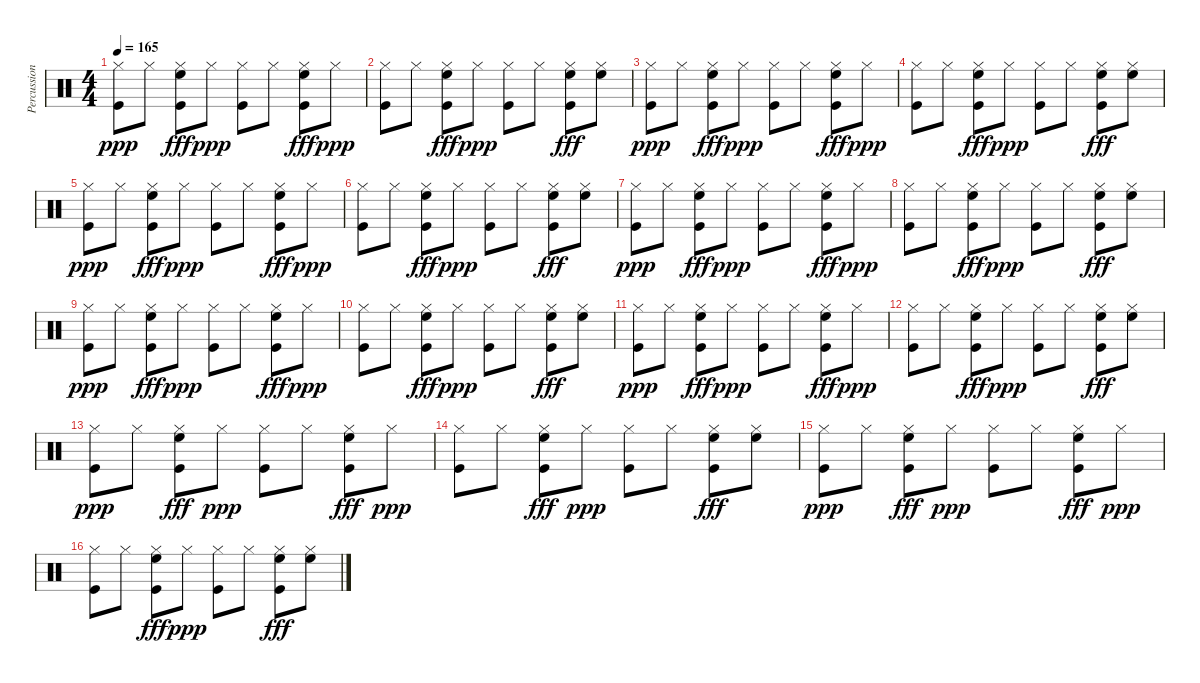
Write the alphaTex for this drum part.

\track ("Percussions" "Percussion") {instrument percussion}
\staff {score}
\articulation defaults
\ts (4 4)
\tempo 165
\clef neutral
\ks c
("Kick (hit)" "Hi-Hat (closed)").8{dy ppp} "Hi-Hat (closed)".8 ("Kick (hit)" "Hi-Hat (closed)" "High Floor Tom (hit)").8{dy fff} "Hi-Hat (closed)".8{dy ppp} ("Kick (hit)" "Hi-Hat (closed)").8 "Hi-Hat (closed)".8 ("Kick (hit)" "Hi-Hat (closed)" "High Floor Tom (hit)").8{dy fff} "Hi-Hat (closed)".8{dy ppp} |
("Kick (hit)" "Hi-Hat (closed)").8 "Hi-Hat (closed)".8 ("Kick (hit)" "Hi-Hat (closed)" "High Floor Tom (hit)").8{dy fff} "Hi-Hat (closed)".8{dy ppp} ("Kick (hit)" "Hi-Hat (closed)").8 "Hi-Hat (closed)".8 ("Kick (hit)" "Hi-Hat (closed)" "High Floor Tom (hit)").8{dy fff} ("Hi-Hat (closed)" "High Floor Tom (hit)").8 |
("Kick (hit)" "Hi-Hat (closed)").8{dy ppp} "Hi-Hat (closed)".8 ("Kick (hit)" "Hi-Hat (closed)" "High Floor Tom (hit)").8{dy fff} "Hi-Hat (closed)".8{dy ppp} ("Kick (hit)" "Hi-Hat (closed)").8 "Hi-Hat (closed)".8 ("Kick (hit)" "Hi-Hat (closed)" "High Floor Tom (hit)").8{dy fff} "Hi-Hat (closed)".8{dy ppp} |
("Kick (hit)" "Hi-Hat (closed)").8 "Hi-Hat (closed)".8 ("Kick (hit)" "Hi-Hat (closed)" "High Floor Tom (hit)").8{dy fff} "Hi-Hat (closed)".8{dy ppp} ("Kick (hit)" "Hi-Hat (closed)").8 "Hi-Hat (closed)".8 ("Kick (hit)" "Hi-Hat (closed)" "High Floor Tom (hit)").8{dy fff} ("Hi-Hat (closed)" "High Floor Tom (hit)").8 |
("Kick (hit)" "Hi-Hat (closed)").8{dy ppp} "Hi-Hat (closed)".8 ("Kick (hit)" "Hi-Hat (closed)" "High Floor Tom (hit)").8{dy fff} "Hi-Hat (closed)".8{dy ppp} ("Kick (hit)" "Hi-Hat (closed)").8 "Hi-Hat (closed)".8 ("Kick (hit)" "Hi-Hat (closed)" "High Floor Tom (hit)").8{dy fff} "Hi-Hat (closed)".8{dy ppp} |
("Kick (hit)" "Hi-Hat (closed)").8 "Hi-Hat (closed)".8 ("Kick (hit)" "Hi-Hat (closed)" "High Floor Tom (hit)").8{dy fff} "Hi-Hat (closed)".8{dy ppp} ("Kick (hit)" "Hi-Hat (closed)").8 "Hi-Hat (closed)".8 ("Kick (hit)" "Hi-Hat (closed)" "High Floor Tom (hit)").8{dy fff} ("Hi-Hat (closed)" "High Floor Tom (hit)").8 |
("Kick (hit)" "Hi-Hat (closed)").8{dy ppp} "Hi-Hat (closed)".8 ("Kick (hit)" "Hi-Hat (closed)" "High Floor Tom (hit)").8{dy fff} "Hi-Hat (closed)".8{dy ppp} ("Kick (hit)" "Hi-Hat (closed)").8 "Hi-Hat (closed)".8 ("Kick (hit)" "Hi-Hat (closed)" "High Floor Tom (hit)").8{dy fff} "Hi-Hat (closed)".8{dy ppp} |
("Kick (hit)" "Hi-Hat (closed)").8 "Hi-Hat (closed)".8 ("Kick (hit)" "Hi-Hat (closed)" "High Floor Tom (hit)").8{dy fff} "Hi-Hat (closed)".8{dy ppp} ("Kick (hit)" "Hi-Hat (closed)").8 "Hi-Hat (closed)".8 ("Kick (hit)" "Hi-Hat (closed)" "High Floor Tom (hit)").8{dy fff} ("Hi-Hat (closed)" "High Floor Tom (hit)").8 |
("Kick (hit)" "Hi-Hat (closed)").8{dy ppp} "Hi-Hat (closed)".8 ("Kick (hit)" "Hi-Hat (closed)" "High Floor Tom (hit)").8{dy fff} "Hi-Hat (closed)".8{dy ppp} ("Kick (hit)" "Hi-Hat (closed)").8 "Hi-Hat (closed)".8 ("Kick (hit)" "Hi-Hat (closed)" "High Floor Tom (hit)").8{dy fff} "Hi-Hat (closed)".8{dy ppp} |
("Kick (hit)" "Hi-Hat (closed)").8 "Hi-Hat (closed)".8 ("Kick (hit)" "Hi-Hat (closed)" "High Floor Tom (hit)").8{dy fff} "Hi-Hat (closed)".8{dy ppp} ("Kick (hit)" "Hi-Hat (closed)").8 "Hi-Hat (closed)".8 ("Kick (hit)" "Hi-Hat (closed)" "High Floor Tom (hit)").8{dy fff} ("Hi-Hat (closed)" "High Floor Tom (hit)").8 |
("Kick (hit)" "Hi-Hat (closed)").8{dy ppp} "Hi-Hat (closed)".8 ("Kick (hit)" "Hi-Hat (closed)" "High Floor Tom (hit)").8{dy fff} "Hi-Hat (closed)".8{dy ppp} ("Kick (hit)" "Hi-Hat (closed)").8 "Hi-Hat (closed)".8 ("Kick (hit)" "Hi-Hat (closed)" "High Floor Tom (hit)").8{dy fff} "Hi-Hat (closed)".8{dy ppp} |
("Kick (hit)" "Hi-Hat (closed)").8 "Hi-Hat (closed)".8 ("Kick (hit)" "Hi-Hat (closed)" "High Floor Tom (hit)").8{dy fff} "Hi-Hat (closed)".8{dy ppp} ("Kick (hit)" "Hi-Hat (closed)").8 "Hi-Hat (closed)".8 ("Kick (hit)" "Hi-Hat (closed)" "High Floor Tom (hit)").8{dy fff} ("Hi-Hat (closed)" "High Floor Tom (hit)").8 |
("Kick (hit)" "Hi-Hat (closed)").8{dy ppp} "Hi-Hat (closed)".8 ("Kick (hit)" "Hi-Hat (closed)" "High Floor Tom (hit)").8{dy fff} "Hi-Hat (closed)".8{dy ppp} ("Kick (hit)" "Hi-Hat (closed)").8 "Hi-Hat (closed)".8 ("Kick (hit)" "Hi-Hat (closed)" "High Floor Tom (hit)").8{dy fff} "Hi-Hat (closed)".8{dy ppp} |
("Kick (hit)" "Hi-Hat (closed)").8 "Hi-Hat (closed)".8 ("Kick (hit)" "Hi-Hat (closed)" "High Floor Tom (hit)").8{dy fff} "Hi-Hat (closed)".8{dy ppp} ("Kick (hit)" "Hi-Hat (closed)").8 "Hi-Hat (closed)".8 ("Kick (hit)" "Hi-Hat (closed)" "High Floor Tom (hit)").8{dy fff} ("Hi-Hat (closed)" "High Floor Tom (hit)").8 |
("Kick (hit)" "Hi-Hat (closed)").8{dy ppp} "Hi-Hat (closed)".8 ("Kick (hit)" "Hi-Hat (closed)" "High Floor Tom (hit)").8{dy fff} "Hi-Hat (closed)".8{dy ppp} ("Kick (hit)" "Hi-Hat (closed)").8 "Hi-Hat (closed)".8 ("Kick (hit)" "Hi-Hat (closed)" "High Floor Tom (hit)").8{dy fff} "Hi-Hat (closed)".8{dy ppp} |
("Kick (hit)" "Hi-Hat (closed)").8 "Hi-Hat (closed)".8 ("Kick (hit)" "Hi-Hat (closed)" "High Floor Tom (hit)").8{dy fff} "Hi-Hat (closed)".8{dy ppp} ("Kick (hit)" "Hi-Hat (closed)").8 "Hi-Hat (closed)".8 ("Kick (hit)" "Hi-Hat (closed)" "High Floor Tom (hit)").8{dy fff} ("Hi-Hat (closed)" "High Floor Tom (hit)").8
